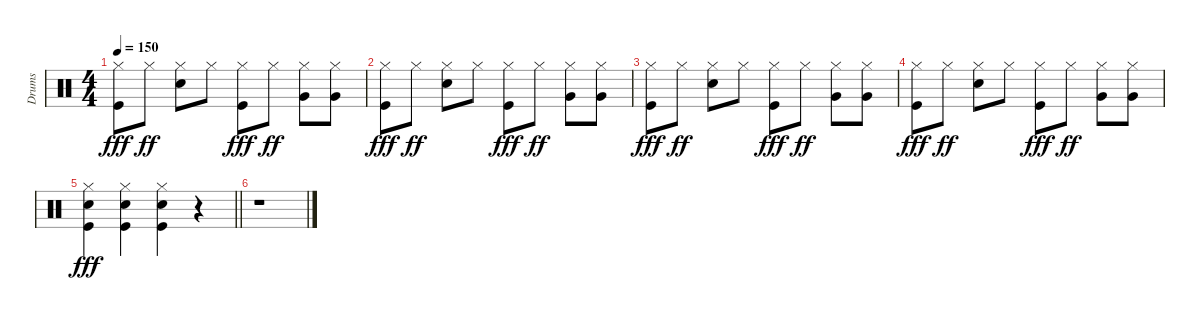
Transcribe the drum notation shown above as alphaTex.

\track ("Drums" "Drums") {instrument percussion}
\staff {score}
\articulation defaults
\ts (4 4)
\tempo 150
\clef neutral
\ks c
("Hi-Hat (closed)" "Kick (hit)").8{dy fff} "Hi-Hat (closed)".8{dy ff} ("Hi-Hat (closed)" "Snare (hit) 2").8 "Hi-Hat (closed)".8 ("Hi-Hat (closed)" "Kick (hit)").8{dy fff} "Hi-Hat (closed)".8{dy ff} ("Hi-Hat (closed)" "Very Low Tom (hit)").8 ("Hi-Hat (closed)" "Very Low Tom (hit)").8 |
("Hi-Hat (closed)" "Kick (hit)").8{dy fff} "Hi-Hat (closed)".8{dy ff} ("Hi-Hat (closed)" "Snare (hit) 2").8 "Hi-Hat (closed)".8 ("Hi-Hat (closed)" "Kick (hit)").8{dy fff} "Hi-Hat (closed)".8{dy ff} ("Hi-Hat (closed)" "Very Low Tom (hit)").8 ("Hi-Hat (closed)" "Very Low Tom (hit)").8 |
("Hi-Hat (closed)" "Kick (hit)").8{dy fff} "Hi-Hat (closed)".8{dy ff} ("Hi-Hat (closed)" "Snare (hit) 2").8 "Hi-Hat (closed)".8 ("Hi-Hat (closed)" "Kick (hit)").8{dy fff} "Hi-Hat (closed)".8{dy ff} ("Hi-Hat (closed)" "Very Low Tom (hit)").8 ("Hi-Hat (closed)" "Very Low Tom (hit)").8 |
("Hi-Hat (closed)" "Kick (hit)").8{dy fff} "Hi-Hat (closed)".8{dy ff} ("Hi-Hat (closed)" "Snare (hit) 2").8 "Hi-Hat (closed)".8 ("Hi-Hat (closed)" "Kick (hit)").8{dy fff} "Hi-Hat (closed)".8{dy ff} ("Hi-Hat (closed)" "Very Low Tom (hit)").8 ("Hi-Hat (closed)" "Very Low Tom (hit)").8 |
\barLineRight lightlight
("Hi-Hat (closed)" "Snare (hit) 2" "Kick (hit)").4{dy fff} ("Hi-Hat (closed)" "Snare (hit) 2" "Kick (hit)").4 ("Hi-Hat (closed)" "Snare (hit) 2" "Kick (hit)").4 r.4 |
r.1
